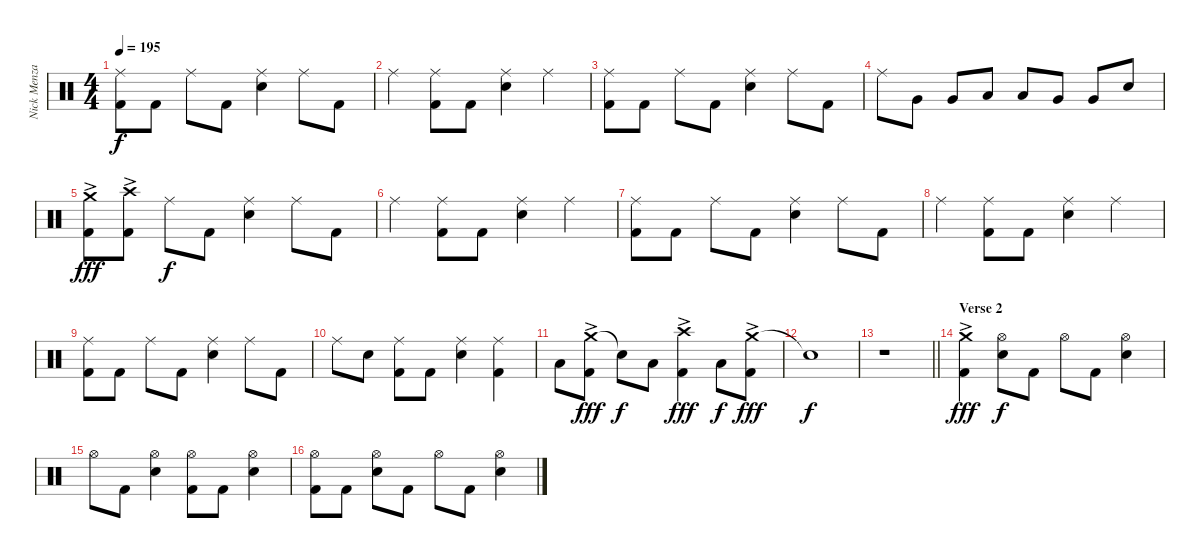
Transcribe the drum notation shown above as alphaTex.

\track ("Nick Menza" "Nick Menza") {instrument percussion}
\staff {score}
\articulation defaults
\ts (4 4)
\tempo 195
\clef neutral
\ks c
("Ride (middle)" "Kick (hit) 2").8{dy f} "Kick (hit) 2".8 "Ride (middle)".8 "Kick (hit) 2".8 ("Ride (middle)" "Snare (hit) 2").4 "Ride (middle)".8 "Kick (hit) 2".8 |
"Ride (middle)".4 ("Ride (middle)" "Kick (hit) 2").8 "Kick (hit) 2".8 ("Ride (middle)" "Snare (hit) 2").4 "Ride (middle)".4 |
("Ride (middle)" "Kick (hit) 2").8 "Kick (hit) 2".8 "Ride (middle)".8 "Kick (hit) 2".8 ("Ride (middle)" "Snare (hit) 2").4 "Ride (middle)".8 "Kick (hit) 2".8 |
"Ride (middle)".8 "Very Low Tom (hit)".8 "Very Low Tom (hit)".8 "Low Tom (hit)".8 "Low Tom (hit)".8 "Very Low Tom (hit)".8 "Very Low Tom (hit)".8 "Snare (hit) 2".8 |
("Crash medium (hit)"{ac} "Kick (hit) 2").8{dy fff} ("Crash high (hit)"{ac} "Kick (hit) 2").8 "Ride (middle)".8{dy f} "Kick (hit) 2".8 ("Ride (middle)" "Snare (hit) 2").4 "Ride (middle)".8 "Kick (hit) 2".8 |
"Ride (middle)".4 ("Ride (middle)" "Kick (hit) 2").8 "Kick (hit) 2".8 ("Ride (middle)" "Snare (hit) 2").4 "Ride (middle)".4 |
("Ride (middle)" "Kick (hit) 2").8 "Kick (hit) 2".8 "Ride (middle)".8 "Kick (hit) 2".8 ("Ride (middle)" "Snare (hit) 2").4 "Ride (middle)".8 "Kick (hit) 2".8 |
"Ride (middle)".4 ("Ride (middle)" "Kick (hit) 2").8 "Kick (hit) 2".8 ("Ride (middle)" "Snare (hit) 2").4 "Ride (middle)".4 |
("Ride (middle)" "Kick (hit) 2").8 "Kick (hit) 2".8 "Ride (middle)".8 "Kick (hit) 2".8 ("Ride (middle)" "Snare (hit) 2").4 "Ride (middle)".8 "Kick (hit) 2".8 |
"Ride (middle)".8 "Snare (hit) 2".8 ("Ride (middle)" "Kick (hit) 2").8 "Kick (hit) 2".8 ("Ride (middle)" "Snare (hit) 2").4 ("Ride (middle)" "Kick (hit) 2").4 |
"Low Tom (hit)".8 ("Crash medium (hit)"{ac} "Kick (hit) 2").8{dy fff} "Snare (hit)"{t}.8{dy f} "Low Tom (hit)".8 ("Crash high (hit)"{ac} "Kick (hit) 2").4{dy fff} "Low Tom (hit)".8{dy f} ("Crash medium (hit)"{ac} "Kick (hit) 2").8{dy fff} |
"Snare (hit)"{t}.1{dy f} |
\barLineRight lightlight
r.1 |
\section ("" "Verse 2")
("Crash medium (hit)"{ac} "Kick (hit) 2").4{dy fff} ("Hi-Hat (open)" "Snare (hit) 2").8{dy f} "Kick (hit) 2".8 "Hi-Hat (open)".8 "Kick (hit) 2".8 ("Hi-Hat (open)" "Snare (hit) 2").4 |
"Hi-Hat (open)".8 "Kick (hit) 2".8 ("Hi-Hat (open)" "Snare (hit) 2").4 ("Hi-Hat (open)" "Kick (hit) 2").8 "Kick (hit) 2".8 ("Hi-Hat (open)" "Snare (hit) 2").4 |
("Hi-Hat (open)" "Kick (hit) 2").8 "Kick (hit) 2".8 ("Hi-Hat (open)" "Snare (hit) 2").8 "Kick (hit) 2".8 "Hi-Hat (open)".8 "Kick (hit) 2".8 ("Hi-Hat (open)" "Snare (hit) 2").4
